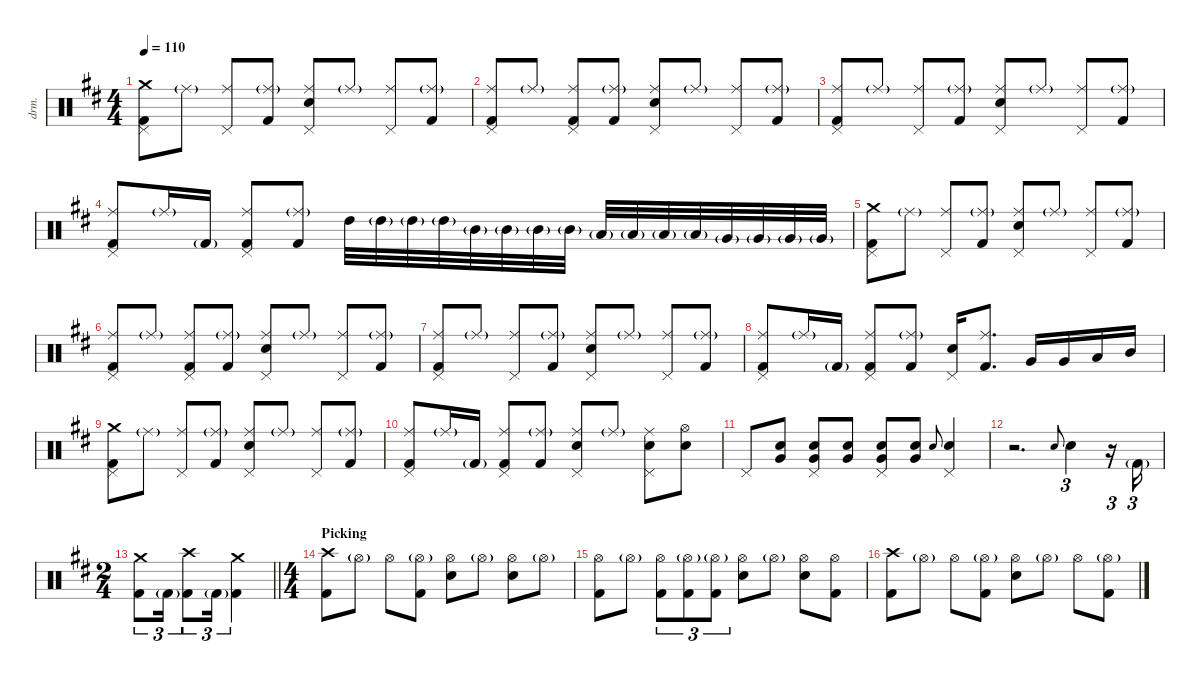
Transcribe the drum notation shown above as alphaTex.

\defaultSystemsLayout 4
\hideDynamics
\bracketExtendMode nobrackets
\track ("Atma Anur" "drm.") {solo instrument percussion}
\staff {score}
\articulation defaults
\ts (4 4)
\tempo 110
\clef neutral
\ks bminor
("Crash medium (hit)"{acc forcenatural} "Pedal Hi-Hat (hit)"{acc forcenatural} "Kick (hit) 2"{acc forcenatural}).8{dy fff beam Down} "Ride (middle)"{g acc forcenatural}.8{dy ff beam Down} ("Ride (middle)"{acc forcenatural} "Pedal Hi-Hat (hit)"{acc forcenatural}).8{dy fff beam Up} ("Ride (middle)"{g acc forcenatural} "Kick (hit) 2"{acc forcenatural}).8{beam Up} ("Ride (middle)"{acc forcenatural} "Snare (hit) 2"{acc forcenatural} "Pedal Hi-Hat (hit)"{acc forcenatural}).8{beam Up} "Ride (middle)"{g acc forcenatural}.8{dy ff beam Up} ("Ride (middle)"{acc forcenatural} "Pedal Hi-Hat (hit)"{acc forcenatural}).8{dy fff beam Up} ("Ride (middle)"{g acc forcenatural} "Kick (hit) 2"{acc forcenatural}).8{beam Up} |
("Ride (middle)"{acc forcenatural} "Pedal Hi-Hat (hit)"{acc forcenatural} "Kick (hit) 2"{acc forcenatural}).8{beam Up} "Ride (middle)"{g acc forcenatural}.8{dy ff beam Up} ("Ride (middle)"{acc forcenatural} "Pedal Hi-Hat (hit)"{acc forcenatural} "Kick (hit) 2"{acc forcenatural}).8{dy fff beam Up} ("Ride (middle)"{g acc forcenatural} "Kick (hit) 2"{acc forcenatural}).8{beam Up} ("Ride (middle)"{acc forcenatural} "Snare (hit) 2"{acc forcenatural} "Pedal Hi-Hat (hit)"{acc forcenatural}).8{beam Up} "Ride (middle)"{g acc forcenatural}.8{dy ff beam Up} ("Ride (middle)"{acc forcenatural} "Pedal Hi-Hat (hit)"{acc forcenatural}).8{dy fff beam Up} ("Ride (middle)"{g acc forcenatural} "Kick (hit) 2"{acc forcenatural}).8{beam Up} |
("Ride (middle)"{acc forcenatural} "Pedal Hi-Hat (hit)"{acc forcenatural} "Kick (hit) 2"{acc forcenatural}).8{beam Up} "Ride (middle)"{g acc forcenatural}.8{dy ff beam Up} ("Ride (middle)"{acc forcenatural} "Pedal Hi-Hat (hit)"{acc forcenatural}).8{dy fff beam Up} ("Ride (middle)"{g acc forcenatural} "Kick (hit) 2"{acc forcenatural}).8{beam Up} ("Ride (middle)"{acc forcenatural} "Snare (hit) 2"{acc forcenatural} "Pedal Hi-Hat (hit)"{acc forcenatural}).8{beam Up} "Ride (middle)"{g acc forcenatural}.8{dy ff beam Up} ("Ride (middle)"{acc forcenatural} "Pedal Hi-Hat (hit)"{acc forcenatural}).8{dy fff beam Up} ("Ride (middle)"{g acc forcenatural} "Kick (hit) 2"{acc forcenatural}).8{beam Up} |
("Ride (middle)"{acc forcenatural} "Pedal Hi-Hat (hit)"{acc forcenatural} "Kick (hit) 2"{acc forcenatural}).8{beam Up} "Ride (middle)"{g acc forcenatural}.16{dy ff beam Up} "Kick (hit) 2"{g acc forcenatural}.16{beam Up} ("Ride (middle)"{acc forcenatural} "Pedal Hi-Hat (hit)"{acc forcenatural} "Kick (hit) 2"{acc forcenatural}).8{dy fff beam Up} ("Ride (middle)"{g acc forcenatural} "Kick (hit) 2"{acc forcenatural}).8{beam Up} "High Tom (hit)"{acc forcenatural}.32{beam Down} "High Tom (hit)"{g acc forcenatural}.32{dy ff beam Down} "High Tom (hit)"{g acc forcenatural}.32{beam Down} "High Tom (hit)"{g acc forcenatural}.32{beam Down} "Mid Tom (hit)"{g acc forcenatural}.32{beam Down} "Mid Tom (hit)"{g acc forcenatural}.32{beam Down} "Mid Tom (hit)"{g acc forcenatural}.32{beam Down} "Mid Tom (hit)"{g acc forcenatural}.32{beam Down} "Low Tom (hit)"{g acc forcenatural}.32{beam Up} "Low Tom (hit)"{g acc forcenatural}.32{beam Up} "Low Tom (hit)"{g acc forcenatural}.32{beam Up} "Low Tom (hit)"{g acc forcenatural}.32{beam Up} "Very Low Tom (hit)"{g acc forcenatural}.32{beam Up} "Very Low Tom (hit)"{g acc forcenatural}.32{beam Up} "Very Low Tom (hit)"{g acc forcenatural}.32{beam Up} "Very Low Tom (hit)"{g acc forcenatural}.32{beam Up} |
("Crash medium (hit)"{acc forcenatural} "Pedal Hi-Hat (hit)"{acc forcenatural} "Kick (hit) 2"{acc forcenatural}).8{dy fff beam Down} "Ride (middle)"{g acc forcenatural}.8{dy ff beam Down} ("Ride (middle)"{acc forcenatural} "Pedal Hi-Hat (hit)"{acc forcenatural}).8{dy fff beam Up} ("Ride (middle)"{g acc forcenatural} "Kick (hit) 2"{acc forcenatural}).8{beam Up} ("Ride (middle)"{acc forcenatural} "Snare (hit) 2"{acc forcenatural} "Pedal Hi-Hat (hit)"{acc forcenatural}).8{beam Up} "Ride (middle)"{g acc forcenatural}.8{dy ff beam Up} ("Ride (middle)"{acc forcenatural} "Pedal Hi-Hat (hit)"{acc forcenatural}).8{dy fff beam Up} ("Ride (middle)"{g acc forcenatural} "Kick (hit) 2"{acc forcenatural}).8{beam Up} |
("Ride (middle)"{acc forcenatural} "Pedal Hi-Hat (hit)"{acc forcenatural} "Kick (hit) 2"{acc forcenatural}).8{beam Up} "Ride (middle)"{g acc forcenatural}.8{dy ff beam Up} ("Ride (middle)"{acc forcenatural} "Pedal Hi-Hat (hit)"{acc forcenatural} "Kick (hit) 2"{acc forcenatural}).8{dy fff beam Up} ("Ride (middle)"{g acc forcenatural} "Kick (hit) 2"{acc forcenatural}).8{beam Up} ("Ride (middle)"{acc forcenatural} "Snare (hit) 2"{acc forcenatural} "Pedal Hi-Hat (hit)"{acc forcenatural}).8{beam Up} "Ride (middle)"{g acc forcenatural}.8{dy ff beam Up} ("Ride (middle)"{acc forcenatural} "Pedal Hi-Hat (hit)"{acc forcenatural}).8{dy fff beam Up} ("Ride (middle)"{g acc forcenatural} "Kick (hit) 2"{acc forcenatural}).8{beam Up} |
("Ride (middle)"{acc forcenatural} "Pedal Hi-Hat (hit)"{acc forcenatural} "Kick (hit) 2"{acc forcenatural}).8{beam Up} "Ride (middle)"{g acc forcenatural}.8{dy ff beam Up} ("Ride (middle)"{acc forcenatural} "Pedal Hi-Hat (hit)"{acc forcenatural}).8{dy fff beam Up} ("Ride (middle)"{g acc forcenatural} "Kick (hit) 2"{acc forcenatural}).8{beam Up} ("Ride (middle)"{acc forcenatural} "Snare (hit) 2"{acc forcenatural} "Pedal Hi-Hat (hit)"{acc forcenatural}).8{beam Up} "Ride (middle)"{g acc forcenatural}.8{dy ff beam Up} ("Ride (middle)"{acc forcenatural} "Pedal Hi-Hat (hit)"{acc forcenatural}).8{dy fff beam Up} ("Ride (middle)"{g acc forcenatural} "Kick (hit) 2"{acc forcenatural}).8{beam Up} |
("Ride (middle)"{acc forcenatural} "Pedal Hi-Hat (hit)"{acc forcenatural} "Kick (hit) 2"{acc forcenatural}).8{beam Up} "Ride (middle)"{g acc forcenatural}.16{dy ff beam Up} "Kick (hit) 2"{g acc forcenatural}.16{beam Up} ("Ride (middle)"{acc forcenatural} "Pedal Hi-Hat (hit)"{acc forcenatural} "Kick (hit) 2"{acc forcenatural}).8{dy fff beam Up} ("Ride (middle)"{g acc forcenatural} "Kick (hit) 2"{acc forcenatural}).8{beam Up} ("Snare (hit) 2"{acc forcenatural} "Pedal Hi-Hat (hit)"{acc forcenatural}).16{beam Up} ("Ride (middle)"{acc forcenatural} "Kick (hit) 2"{acc forcenatural}).8{d beam Up} "Very Low Tom (hit)"{acc forcenatural}.16{beam Up} "Very Low Tom (hit)"{acc forcenatural}.16{beam Up} "Low Tom (hit)"{acc forcenatural}.16{beam Up} "Mid Tom (hit)"{acc forcenatural}.16{beam Up} |
("Crash medium (hit)"{acc forcenatural} "Pedal Hi-Hat (hit)"{acc forcenatural} "Kick (hit) 2"{acc forcenatural}).8{beam Down} "Ride (middle)"{g acc forcenatural}.8{dy ff beam Down} ("Ride (middle)"{acc forcenatural} "Pedal Hi-Hat (hit)"{acc forcenatural}).8{dy fff beam Up} ("Ride (middle)"{g acc forcenatural} "Kick (hit) 2"{acc forcenatural}).8{beam Up} ("Ride (middle)"{acc forcenatural} "Snare (hit) 2"{acc forcenatural} "Pedal Hi-Hat (hit)"{acc forcenatural}).8{beam Up} "Ride (middle)"{g acc forcenatural}.8{dy ff beam Up} ("Ride (middle)"{acc forcenatural} "Pedal Hi-Hat (hit)"{acc forcenatural}).8{dy fff beam Up} ("Ride (middle)"{g acc forcenatural} "Kick (hit) 2"{acc forcenatural}).8{beam Up} |
("Ride (middle)"{acc forcenatural} "Pedal Hi-Hat (hit)"{acc forcenatural} "Kick (hit) 2"{acc forcenatural}).8{beam Up} "Ride (middle)"{g acc forcenatural}.16{dy ff beam Up} "Kick (hit) 2"{g acc forcenatural}.16{beam Up} ("Ride (middle)"{acc forcenatural} "Pedal Hi-Hat (hit)"{acc forcenatural} "Kick (hit) 2"{acc forcenatural}).8{dy fff beam Up} ("Ride (middle)"{g acc forcenatural} "Kick (hit) 2"{acc forcenatural}).8{beam Up} ("Ride (middle)"{acc forcenatural} "Snare (hit) 2"{acc forcenatural} "Pedal Hi-Hat (hit)"{acc forcenatural}).8{beam Up} "Ride (middle)"{g acc forcenatural}.8{dy ff beam Up} ("Ride (middle)"{acc forcenatural} "Snare (hit) 2"{acc forcenatural} "Pedal Hi-Hat (hit)"{acc forcenatural}).8{dy fff beam Down} ("Hi-Hat (open)"{acc forcenatural} "Snare (hit) 2"{acc forcenatural}).8{beam Down} |
"Pedal Hi-Hat (hit)"{acc forcenatural}.8{beam Up} ("Very Low Tom (hit)"{acc forcenatural} "Snare (hit) 2"{acc forcenatural}).8{dy mp beam Up} ("Very Low Tom (hit)"{acc forcenatural} "Snare (hit) 2"{acc forcenatural} "Pedal Hi-Hat (hit)"{acc forcenatural}).8{beam Up} ("Very Low Tom (hit)"{acc forcenatural} "Snare (hit) 2"{acc forcenatural}).8{beam Up} ("Very Low Tom (hit)"{acc forcenatural} "Snare (hit) 2"{acc forcenatural} "Pedal Hi-Hat (hit)"{acc forcenatural}).8{dy f beam Up} ("Very Low Tom (hit)"{acc forcenatural} "Snare (hit) 2"{acc forcenatural}).8{dy fff beam Up} "Electric Snare (hit)"{acc forcenatural}.8{gr onbeat dy ff beam Up} ("Snare (hit) 2"{acc forcenatural} "Pedal Hi-Hat (hit)"{acc forcenatural}).4{dy fff beam Up} |
r.2{d beam Down} "Electric Snare (hit)"{acc forcenatural}.8{gr onbeat dy ff beam Up} "Snare (hit) 2"{acc forcenatural}.4{tu (3 2) dy fff beam Down} r.16{tu (3 2) beam Down} "Kick (hit) 2"{g acc forcenatural}.16{tu (3 2) dy ff beam Up} |
\ts (2 4)
\beaming (8 2 2)
\barLineRight lightlight
("Crash medium (hit)"{acc forcenatural} "Kick (hit) 2"{acc forcenatural}).8{tu (3 2) dy fff beam Down} "Kick (hit) 2"{g acc forcenatural}.16{tu (3 2) dy ff beam Down} ("Crash high (hit)"{acc forcenatural} "Kick (hit) 2"{acc forcenatural}).8{tu (3 2) dy fff beam Down} "Kick (hit) 2"{g acc forcenatural}.16{tu (3 2) dy ff beam Down} ("Crash medium (hit)"{acc forcenatural} "Kick (hit) 2"{acc forcenatural}).4{dy fff beam Down} |
\ts (4 4)
\beaming (8 2 2 2 2)
\section ("" "Picking")
("Crash high (hit)"{acc forcenatural} "Kick (hit) 2"{acc forcenatural}).8{beam Down} "Hi-Hat (open)"{g acc forcenatural}.8{dy ff beam Down} "Hi-Hat (open)"{acc forcenatural}.8{dy fff beam Down} ("Hi-Hat (open)"{g acc forcenatural} "Kick (hit) 2"{acc forcenatural}).8{beam Down} ("Hi-Hat (open)"{acc forcenatural} "Snare (hit) 2"{acc forcenatural}).8{beam Down} "Hi-Hat (open)"{g acc forcenatural}.8{dy ff beam Down} ("Hi-Hat (open)"{acc forcenatural} "Snare (hit) 2"{acc forcenatural}).8{dy fff beam Down} "Hi-Hat (open)"{g acc forcenatural}.8{dy ff beam Down} |
("Hi-Hat (open)"{acc forcenatural} "Kick (hit) 2"{acc forcenatural}).8{dy fff beam Down} "Hi-Hat (open)"{g acc forcenatural}.8{dy ff beam Down} ("Hi-Hat (open)"{acc forcenatural} "Kick (hit) 2"{acc forcenatural}).8{tu (3 2) dy fff beam Down} ("Hi-Hat (open)"{g acc forcenatural} "Kick (hit) 2"{acc forcenatural}).8{tu (3 2) beam Down} ("Hi-Hat (open)"{g acc forcenatural} "Kick (hit) 2"{acc forcenatural}).8{tu (3 2) beam Down} ("Hi-Hat (open)"{acc forcenatural} "Snare (hit) 2"{acc forcenatural}).8{beam Down} "Hi-Hat (open)"{g acc forcenatural}.8{dy ff beam Down} ("Hi-Hat (open)"{acc forcenatural} "Snare (hit) 2"{acc forcenatural}).8{dy fff beam Down} ("Hi-Hat (open)"{acc forcenatural} "Kick (hit) 2"{acc forcenatural}).8{beam Down} |
("Crash high (hit)"{acc forcenatural} "Kick (hit) 2"{acc forcenatural}).8{beam Down} "Hi-Hat (open)"{g acc forcenatural}.8{dy ff beam Down} "Hi-Hat (open)"{acc forcenatural}.8{dy fff beam Down} ("Hi-Hat (open)"{g acc forcenatural} "Kick (hit) 2"{acc forcenatural}).8{beam Down} ("Hi-Hat (open)"{acc forcenatural} "Snare (hit) 2"{acc forcenatural}).8{beam Down} "Hi-Hat (open)"{g acc forcenatural}.8{dy ff beam Down} "Hi-Hat (open)"{acc forcenatural}.8{dy fff beam Down} ("Hi-Hat (open)"{g acc forcenatural} "Kick (hit) 2"{acc forcenatural}).8{beam Down}
